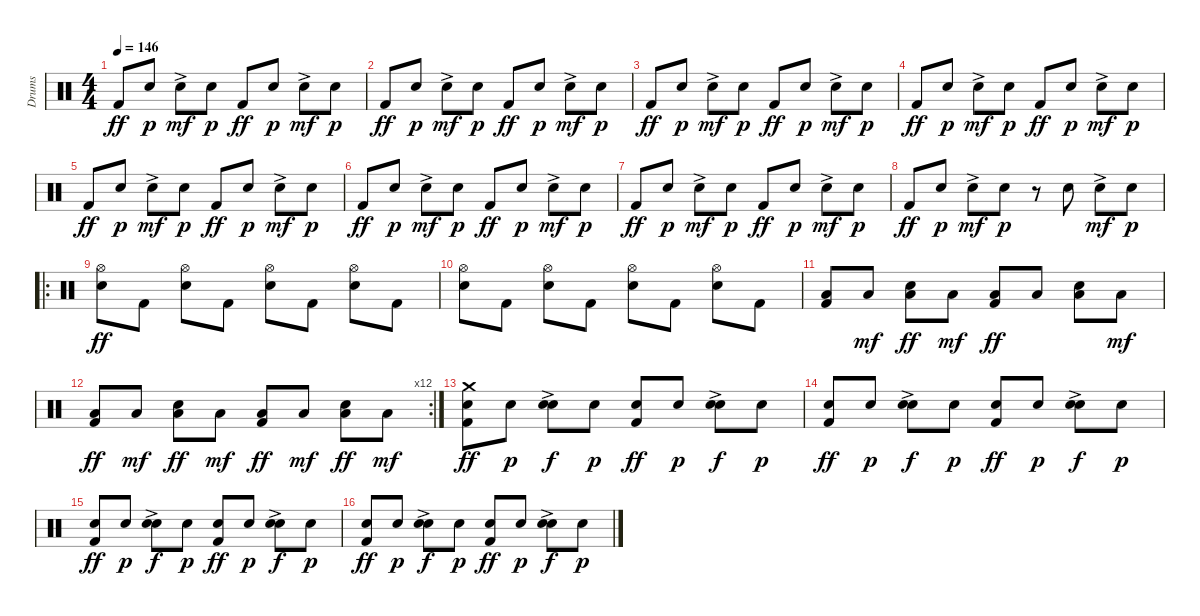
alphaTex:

\track ("Drums" "Drums") {instrument percussion}
\staff {score}
\articulation defaults
\ts (4 4)
\tempo 146
\clef neutral
\ks c "Kick (hit) 2".8{dy ff} "Electric Snare (hit)".8{dy p} "Electric Snare (hit)"{ac}.8{dy mf} "Electric Snare (hit)".8{dy p} "Kick (hit) 2".8{dy ff} "Electric Snare (hit)".8{dy p} "Electric Snare (hit)"{ac}.8{dy mf} "Electric Snare (hit)".8{dy p}
|
"Kick (hit) 2".8{dy ff} "Electric Snare (hit)".8{dy p} "Electric Snare (hit)"{ac}.8{dy mf} "Electric Snare (hit)".8{dy p} "Kick (hit) 2".8{dy ff} "Electric Snare (hit)".8{dy p} "Electric Snare (hit)"{ac}.8{dy mf} "Electric Snare (hit)".8{dy p} |
"Kick (hit) 2".8{dy ff} "Electric Snare (hit)".8{dy p} "Electric Snare (hit)"{ac}.8{dy mf} "Electric Snare (hit)".8{dy p} "Kick (hit) 2".8{dy ff} "Electric Snare (hit)".8{dy p} "Electric Snare (hit)"{ac}.8{dy mf} "Electric Snare (hit)".8{dy p} |
"Kick (hit) 2".8{dy ff} "Electric Snare (hit)".8{dy p} "Electric Snare (hit)"{ac}.8{dy mf} "Electric Snare (hit)".8{dy p} "Kick (hit) 2".8{dy ff} "Electric Snare (hit)".8{dy p} "Electric Snare (hit)"{ac}.8{dy mf} "Electric Snare (hit)".8{dy p} |
"Kick (hit) 2".8{dy ff} "Electric Snare (hit)".8{dy p} "Electric Snare (hit)"{ac}.8{dy mf} "Electric Snare (hit)".8{dy p} "Kick (hit) 2".8{dy ff} "Electric Snare (hit)".8{dy p} "Electric Snare (hit)"{ac}.8{dy mf} "Electric Snare (hit)".8{dy p} |
"Kick (hit) 2".8{dy ff} "Electric Snare (hit)".8{dy p} "Electric Snare (hit)"{ac}.8{dy mf} "Electric Snare (hit)".8{dy p} "Kick (hit) 2".8{dy ff} "Electric Snare (hit)".8{dy p} "Electric Snare (hit)"{ac}.8{dy mf} "Electric Snare (hit)".8{dy p} |
"Kick (hit) 2".8{dy ff} "Electric Snare (hit)".8{dy p} "Electric Snare (hit)"{ac}.8{dy mf} "Electric Snare (hit)".8{dy p} "Kick (hit) 2".8{dy ff} "Electric Snare (hit)".8{dy p} "Electric Snare (hit)"{ac}.8{dy mf} "Electric Snare (hit)".8{dy p} |
"Kick (hit) 2".8{dy ff} "Electric Snare (hit)".8{dy p} "Electric Snare (hit)"{ac}.8{dy mf} "Electric Snare (hit)".8{dy p} r.8 "Electric Snare (hit)".8 "Electric Snare (hit)"{ac}.8{dy mf} "Electric Snare (hit)".8{dy p} |
\ro
("Hi-Hat (open)" "Electric Snare (hit)").8{dy ff} "Kick (hit) 2".8 ("Hi-Hat (open)" "Electric Snare (hit)").8 "Kick (hit) 2".8 ("Hi-Hat (open)" "Electric Snare (hit)").8 "Kick (hit) 2".8 ("Hi-Hat (open)" "Electric Snare (hit)").8 "Kick (hit) 2".8 |
("Hi-Hat (open)" "Electric Snare (hit)").8 "Kick (hit) 2".8 ("Hi-Hat (open)" "Electric Snare (hit)").8 "Kick (hit) 2".8 ("Hi-Hat (open)" "Electric Snare (hit)").8 "Kick (hit) 2".8 ("Hi-Hat (open)" "Electric Snare (hit)").8 "Kick (hit) 2".8 |
("Low Floor Tom (hit)" "Kick (hit) 2").8 "Low Floor Tom (hit)".8{dy mf} ("Low Floor Tom (hit)" "Electric Snare (hit)").8{dy ff} "Low Floor Tom (hit)".8{dy mf} ("Low Floor Tom (hit)" "Kick (hit) 2").8{dy ff} "Low Floor Tom (hit)".8 ("Low Floor Tom (hit)" "Electric Snare (hit)").8 "Low Floor Tom (hit)".8{dy mf} |
\rc 12
("Low Floor Tom (hit)" "Kick (hit) 2").8{dy ff} "Low Floor Tom (hit)".8{dy mf} ("Low Floor Tom (hit)" "Electric Snare (hit)").8{dy ff} "Low Floor Tom (hit)".8{dy mf} ("Low Floor Tom (hit)" "Kick (hit) 2").8{dy ff} "Low Floor Tom (hit)".8{dy mf} ("Low Floor Tom (hit)" "Electric Snare (hit)").8{dy ff} "Low Floor Tom (hit)".8{dy mf} |
("Crash medium (hit)" "Electric Snare (hit)" "Kick (hit) 2").8{dy ff} "Electric Snare (hit)".8{dy p} ("Electric Snare (hit)" "Electric Snare (hit)"{ac}).8{dy f} "Electric Snare (hit)".8{dy p} ("Electric Snare (hit)" "Kick (hit) 2").8{dy ff} "Electric Snare (hit)".8{dy p} ("Electric Snare (hit)" "Electric Snare (hit)"{ac}).8{dy f} "Electric Snare (hit)".8{dy p} |
("Electric Snare (hit)" "Kick (hit) 2").8{dy ff} "Electric Snare (hit)".8{dy p} ("Electric Snare (hit)" "Electric Snare (hit)"{ac}).8{dy f} "Electric Snare (hit)".8{dy p} ("Electric Snare (hit)" "Kick (hit) 2").8{dy ff} "Electric Snare (hit)".8{dy p} ("Electric Snare (hit)" "Electric Snare (hit)"{ac}).8{dy f} "Electric Snare (hit)".8{dy p} |
("Electric Snare (hit)" "Kick (hit) 2").8{dy ff} "Electric Snare (hit)".8{dy p} ("Electric Snare (hit)" "Electric Snare (hit)"{ac}).8{dy f} "Electric Snare (hit)".8{dy p} ("Electric Snare (hit)" "Kick (hit) 2").8{dy ff} "Electric Snare (hit)".8{dy p} ("Electric Snare (hit)" "Electric Snare (hit)"{ac}).8{dy f} "Electric Snare (hit)".8{dy p} |
("Electric Snare (hit)" "Kick (hit) 2").8{dy ff} "Electric Snare (hit)".8{dy p} ("Electric Snare (hit)" "Electric Snare (hit)"{ac}).8{dy f} "Electric Snare (hit)".8{dy p} ("Electric Snare (hit)" "Kick (hit) 2").8{dy ff} "Electric Snare (hit)".8{dy p} ("Electric Snare (hit)" "Electric Snare (hit)"{ac}).8{dy f} "Electric Snare (hit)".8{dy p}
